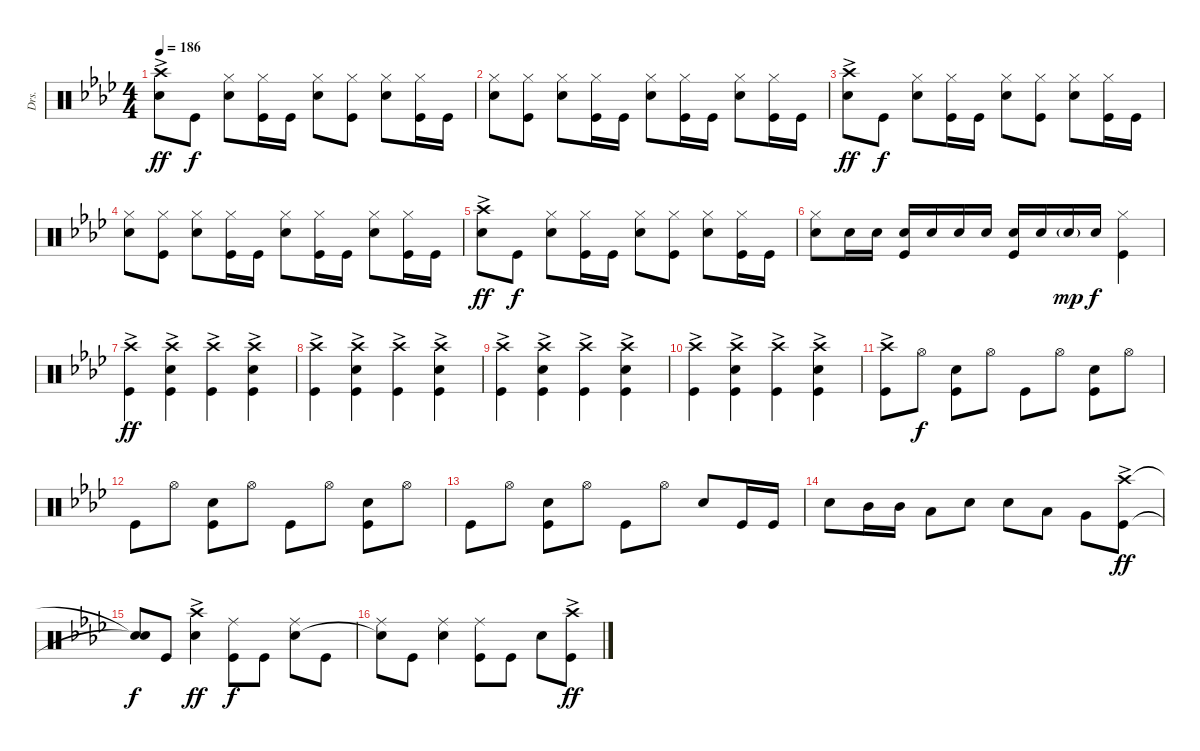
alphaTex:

\track ("Drs." "Drs.") {instrument percussion}
\staff {score}
\articulation defaults
\ts (4 4)
\tempo 186
\clef neutral
\ks ab
("Crash high (hit)"{ac} "Snare (hit) 2").8{dy ff} "Kick (hit)".8{dy f} ("Hi-Hat (closed)" "Snare (hit) 2").8 ("Hi-Hat (closed)" "Kick (hit)").16 "Kick (hit)".16 ("Hi-Hat (closed)" "Snare (hit) 2").8 ("Hi-Hat (closed)" "Kick (hit)").8 ("Hi-Hat (closed)" "Snare (hit) 2").8 ("Hi-Hat (closed)" "Kick (hit)").16 "Kick (hit)".16 |
("Hi-Hat (closed)" "Snare (hit) 2").8 ("Hi-Hat (closed)" "Kick (hit)").8 ("Hi-Hat (closed)" "Snare (hit) 2").8 ("Hi-Hat (closed)" "Kick (hit)").16 "Kick (hit)".16 ("Hi-Hat (closed)" "Snare (hit) 2").8 ("Hi-Hat (closed)" "Kick (hit)").16 "Kick (hit)".16 ("Hi-Hat (closed)" "Snare (hit) 2").8 ("Hi-Hat (closed)" "Kick (hit)").16 "Kick (hit)".16 |
("Crash high (hit)"{ac} "Snare (hit) 2").8{dy ff} "Kick (hit)".8{dy f} ("Hi-Hat (closed)" "Snare (hit) 2").8 ("Hi-Hat (closed)" "Kick (hit)").16 "Kick (hit)".16 ("Hi-Hat (closed)" "Snare (hit) 2").8 ("Hi-Hat (closed)" "Kick (hit)").8 ("Hi-Hat (closed)" "Snare (hit) 2").8 ("Hi-Hat (closed)" "Kick (hit)").16 "Kick (hit)".16 |
("Hi-Hat (closed)" "Snare (hit) 2").8 ("Hi-Hat (closed)" "Kick (hit)").8 ("Hi-Hat (closed)" "Snare (hit) 2").8 ("Hi-Hat (closed)" "Kick (hit)").16 "Kick (hit)".16 ("Hi-Hat (closed)" "Snare (hit) 2").8 ("Hi-Hat (closed)" "Kick (hit)").16 "Kick (hit)".16 ("Hi-Hat (closed)" "Snare (hit) 2").8 ("Hi-Hat (closed)" "Kick (hit)").16 "Kick (hit)".16 |
("Crash high (hit)"{ac} "Snare (hit) 2").8{dy ff} "Kick (hit)".8{dy f} ("Hi-Hat (closed)" "Snare (hit) 2").8 ("Hi-Hat (closed)" "Kick (hit)").16 "Kick (hit)".16 ("Hi-Hat (closed)" "Snare (hit) 2").8 ("Hi-Hat (closed)" "Kick (hit)").8 ("Hi-Hat (closed)" "Snare (hit) 2").8 ("Hi-Hat (closed)" "Kick (hit)").16 "Kick (hit)".16 |
("Hi-Hat (closed)" "Snare (hit) 2").8 "Snare (hit) 2".16 "Snare (hit) 2".16 ("Snare (hit) 2" "Kick (hit)").16 "Snare (hit) 2".16 "Snare (hit) 2".16 "Snare (hit) 2".16 ("Snare (hit) 2" "Kick (hit)").16 "Snare (hit) 2".16 "Snare (hit) 2"{g}.16{dy mp} "Snare (hit) 2".16{dy f} ("Hi-Hat (closed)" "Kick (hit)").4 |
("Crash high (hit)"{ac} "Kick (hit)").4{dy ff} ("Crash high (hit)"{ac} "Snare (hit) 2" "Kick (hit)").4 ("Crash high (hit)"{ac} "Kick (hit)").4 ("Crash high (hit)"{ac} "Snare (hit) 2" "Kick (hit)").4 |
("Crash high (hit)"{ac} "Kick (hit)").4 ("Crash high (hit)"{ac} "Snare (hit) 2" "Kick (hit)").4 ("Crash high (hit)"{ac} "Kick (hit)").4 ("Crash high (hit)"{ac} "Snare (hit) 2" "Kick (hit)").4 |
("Crash high (hit)"{ac} "Kick (hit)").4 ("Crash high (hit)"{ac} "Snare (hit) 2" "Kick (hit)").4 ("Crash high (hit)"{ac} "Kick (hit)").4 ("Crash high (hit)"{ac} "Snare (hit) 2" "Kick (hit)").4 |
("Crash high (hit)"{ac} "Kick (hit)").4 ("Crash high (hit)"{ac} "Snare (hit) 2" "Kick (hit)").4 ("Crash high (hit)"{ac} "Kick (hit)").4 ("Crash high (hit)"{ac} "Snare (hit) 2" "Kick (hit)").4 |
("Crash high (hit)"{ac} "Kick (hit)").8 "Hi-Hat (open)".8{dy f} ("Snare (hit) 2" "Kick (hit)").8 "Hi-Hat (open)".8 "Kick (hit)".8 "Hi-Hat (open)".8 ("Snare (hit) 2" "Kick (hit)").8 "Hi-Hat (open)".8 |
"Kick (hit)".8 "Hi-Hat (open)".8 ("Snare (hit) 2" "Kick (hit)").8 "Hi-Hat (open)".8 "Kick (hit)".8 "Hi-Hat (open)".8 ("Snare (hit) 2" "Kick (hit)").8 "Hi-Hat (open)".8 |
"Kick (hit)".8 "Hi-Hat (open)".8 ("Snare (hit) 2" "Kick (hit)").8 "Hi-Hat (open)".8 "Kick (hit)".8 "Hi-Hat (open)".8 "Snare (hit) 2".8 "Kick (hit)".16 "Kick (hit)".16 |
"Snare (hit) 2".8 "Mid Tom (hit)".16 "Mid Tom (hit)".16 "Low Tom (hit)".8 "Snare (hit) 2".8 "Snare (hit) 2".8 "Low Tom (hit)".8 "Very Low Tom (hit)".8 ("Crash high (hit)"{ac} "Kick (hit)").8{dy ff} |
("Snare (hit)"{t} "Snare (hit)"{t}).8{dy f} "Kick (hit)".8 ("Crash high (hit)"{ac} "Snare (hit) 2").4{dy ff} ("Ride (middle)" "Kick (hit)").8{dy f} "Kick (hit)".8 ("Ride (middle)" "Snare (hit) 2").8 "Kick (hit)".8 |
("Ride (middle)" "Snare (hit)"{t}).8 "Kick (hit)".8 ("Ride (middle)" "Snare (hit) 2").4 ("Ride (middle)" "Kick (hit)").8 "Kick (hit)".8 "Snare (hit) 2".8 ("Crash high (hit)"{ac} "Kick (hit)").8{dy ff}
